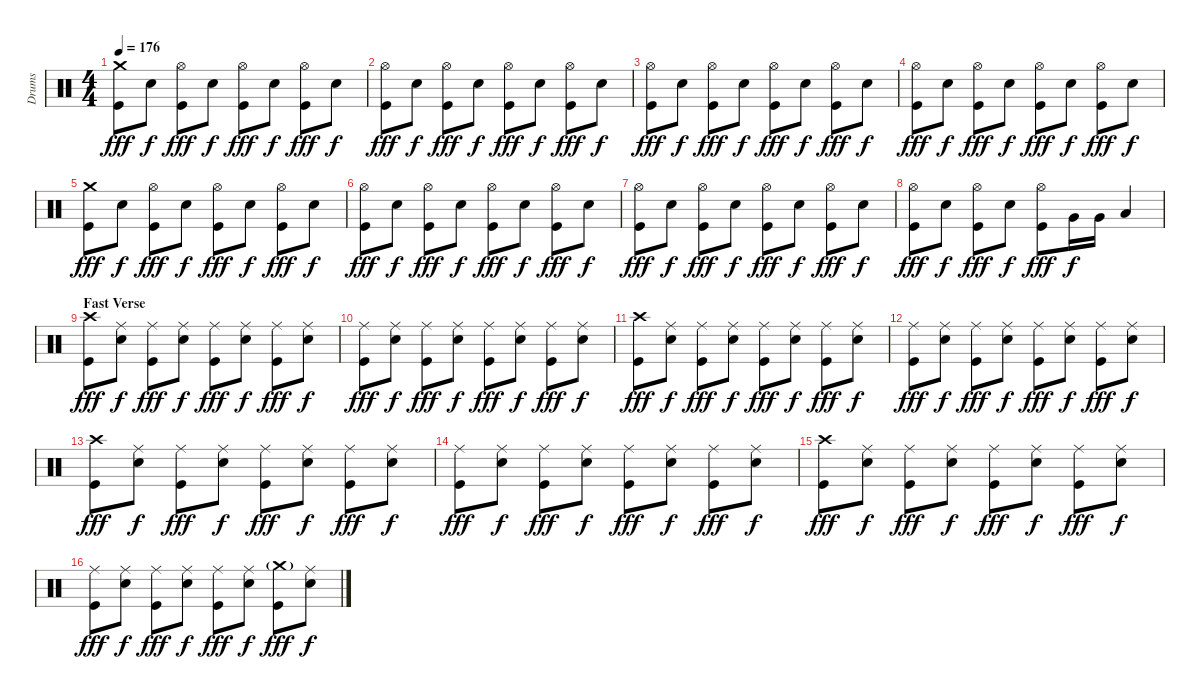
\track ("Drums" "Drums") {instrument percussion}
\staff {score}
\articulation defaults
\ts (4 4)
\tempo 176
\clef neutral
\ks c
("Crash medium (hit)" "Kick (hit)").8{dy fff} "Snare (hit) 2".8{dy f} ("Hi-Hat (open)" "Kick (hit)").8{dy fff} "Snare (hit) 2".8{dy f} ("Hi-Hat (open)" "Kick (hit)").8{dy fff} "Snare (hit) 2".8{dy f} ("Hi-Hat (open)" "Kick (hit)").8{dy fff} "Snare (hit) 2".8{dy f} |
("Hi-Hat (open)" "Kick (hit)").8{dy fff} "Snare (hit) 2".8{dy f} ("Hi-Hat (open)" "Kick (hit)").8{dy fff} "Snare (hit) 2".8{dy f} ("Hi-Hat (open)" "Kick (hit)").8{dy fff} "Snare (hit) 2".8{dy f} ("Hi-Hat (open)" "Kick (hit)").8{dy fff} "Snare (hit) 2".8{dy f} |
("Hi-Hat (open)" "Kick (hit)").8{dy fff} "Snare (hit) 2".8{dy f} ("Hi-Hat (open)" "Kick (hit)").8{dy fff} "Snare (hit) 2".8{dy f} ("Hi-Hat (open)" "Kick (hit)").8{dy fff} "Snare (hit) 2".8{dy f} ("Hi-Hat (open)" "Kick (hit)").8{dy fff} "Snare (hit) 2".8{dy f} |
("Hi-Hat (open)" "Kick (hit)").8{dy fff} "Snare (hit) 2".8{dy f} ("Hi-Hat (open)" "Kick (hit)").8{dy fff} "Snare (hit) 2".8{dy f} ("Hi-Hat (open)" "Kick (hit)").8{dy fff} "Snare (hit) 2".8{dy f} ("Hi-Hat (open)" "Kick (hit)").8{dy fff} "Snare (hit) 2".8{dy f} |
("Crash medium (hit)" "Kick (hit)").8{dy fff} "Snare (hit) 2".8{dy f} ("Hi-Hat (open)" "Kick (hit)").8{dy fff} "Snare (hit) 2".8{dy f} ("Hi-Hat (open)" "Kick (hit)").8{dy fff} "Snare (hit) 2".8{dy f} ("Hi-Hat (open)" "Kick (hit)").8{dy fff} "Snare (hit) 2".8{dy f} |
("Hi-Hat (open)" "Kick (hit)").8{dy fff} "Snare (hit) 2".8{dy f} ("Hi-Hat (open)" "Kick (hit)").8{dy fff} "Snare (hit) 2".8{dy f} ("Hi-Hat (open)" "Kick (hit)").8{dy fff} "Snare (hit) 2".8{dy f} ("Hi-Hat (open)" "Kick (hit)").8{dy fff} "Snare (hit) 2".8{dy f} |
("Hi-Hat (open)" "Kick (hit)").8{dy fff} "Snare (hit) 2".8{dy f} ("Hi-Hat (open)" "Kick (hit)").8{dy fff} "Snare (hit) 2".8{dy f} ("Hi-Hat (open)" "Kick (hit)").8{dy fff} "Snare (hit) 2".8{dy f} ("Hi-Hat (open)" "Kick (hit)").8{dy fff} "Snare (hit) 2".8{dy f} |
("Hi-Hat (open)" "Kick (hit)").8{dy fff} "Snare (hit) 2".8{dy f} ("Hi-Hat (open)" "Kick (hit)").8{dy fff} "Snare (hit) 2".8{dy f} ("Hi-Hat (open)" "Kick (hit)").8{dy fff} "Very Low Tom (hit)".16{dy f} "Very Low Tom (hit)".16 "Low Floor Tom (hit)".4 |
\section ("" "Fast Verse")
("Crash high (hit)" "Kick (hit)").8{dy fff} ("Ride (middle)" "Snare (hit) 2").8{dy f} ("Ride (middle)" "Kick (hit)").8{dy fff} ("Ride (middle)" "Snare (hit) 2").8{dy f} ("Ride (middle)" "Kick (hit)").8{dy fff} ("Ride (middle)" "Snare (hit) 2").8{dy f} ("Ride (middle)" "Kick (hit)").8{dy fff} ("Ride (middle)" "Snare (hit) 2").8{dy f} |
("Ride (middle)" "Kick (hit)").8{dy fff} ("Ride (middle)" "Snare (hit) 2").8{dy f} ("Ride (middle)" "Kick (hit)").8{dy fff} ("Ride (middle)" "Snare (hit) 2").8{dy f} ("Ride (middle)" "Kick (hit)").8{dy fff} ("Ride (middle)" "Snare (hit) 2").8{dy f} ("Ride (middle)" "Kick (hit)").8{dy fff} ("Ride (middle)" "Snare (hit) 2").8{dy f} |
("Crash high (hit)" "Kick (hit)").8{dy fff} ("Ride (middle)" "Snare (hit) 2").8{dy f} ("Ride (middle)" "Kick (hit)").8{dy fff} ("Ride (middle)" "Snare (hit) 2").8{dy f} ("Ride (middle)" "Kick (hit)").8{dy fff} ("Ride (middle)" "Snare (hit) 2").8{dy f} ("Ride (middle)" "Kick (hit)").8{dy fff} ("Ride (middle)" "Snare (hit) 2").8{dy f} |
("Ride (middle)" "Kick (hit)").8{dy fff} ("Ride (middle)" "Snare (hit) 2").8{dy f} ("Ride (middle)" "Kick (hit)").8{dy fff} ("Ride (middle)" "Snare (hit) 2").8{dy f} ("Ride (middle)" "Kick (hit)").8{dy fff} ("Ride (middle)" "Snare (hit) 2").8{dy f} ("Ride (middle)" "Kick (hit)").8{dy fff} ("Ride (middle)" "Snare (hit) 2").8{dy f} |
("Crash high (hit)" "Kick (hit)").8{dy fff} ("Ride (middle)" "Snare (hit) 2").8{dy f} ("Ride (middle)" "Kick (hit)").8{dy fff} ("Ride (middle)" "Snare (hit) 2").8{dy f} ("Ride (middle)" "Kick (hit)").8{dy fff} ("Ride (middle)" "Snare (hit) 2").8{dy f} ("Ride (middle)" "Kick (hit)").8{dy fff} ("Ride (middle)" "Snare (hit) 2").8{dy f} |
("Ride (middle)" "Kick (hit)").8{dy fff} ("Ride (middle)" "Snare (hit) 2").8{dy f} ("Ride (middle)" "Kick (hit)").8{dy fff} ("Ride (middle)" "Snare (hit) 2").8{dy f} ("Ride (middle)" "Kick (hit)").8{dy fff} ("Ride (middle)" "Snare (hit) 2").8{dy f} ("Ride (middle)" "Kick (hit)").8{dy fff} ("Ride (middle)" "Snare (hit) 2").8{dy f} |
("Crash high (hit)" "Kick (hit)").8{dy fff} ("Ride (middle)" "Snare (hit) 2").8{dy f} ("Ride (middle)" "Kick (hit)").8{dy fff} ("Ride (middle)" "Snare (hit) 2").8{dy f} ("Ride (middle)" "Kick (hit)").8{dy fff} ("Ride (middle)" "Snare (hit) 2").8{dy f} ("Ride (middle)" "Kick (hit)").8{dy fff} ("Ride (middle)" "Snare (hit) 2").8{dy f} |
("Ride (middle)" "Kick (hit)").8{dy fff} ("Ride (middle)" "Snare (hit) 2").8{dy f} ("Ride (middle)" "Kick (hit)").8{dy fff} ("Ride (middle)" "Snare (hit) 2").8{dy f} ("Ride (middle)" "Kick (hit)").8{dy fff} ("Ride (middle)" "Snare (hit) 2").8{dy f} ("Crash medium (hit)"{g} "Kick (hit)").8{dy fff} ("Ride (middle)" "Snare (hit) 2").8{dy f}
